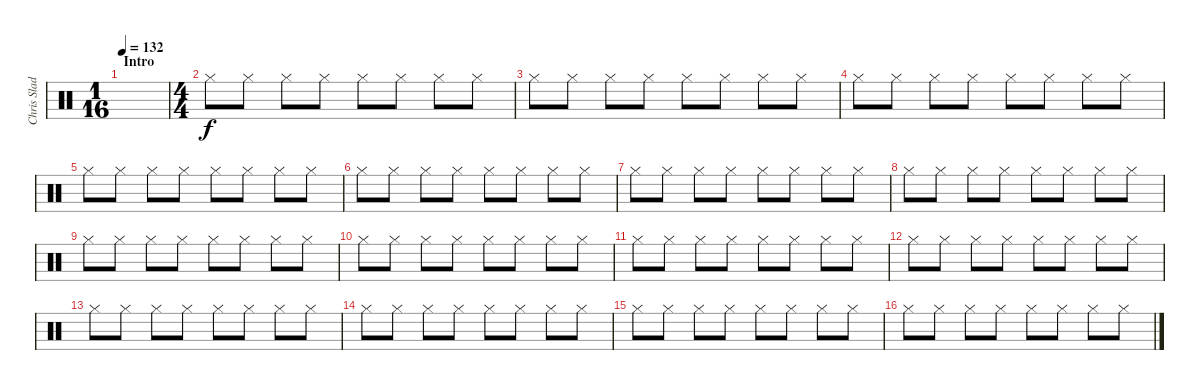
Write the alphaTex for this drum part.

\track ("Chris Slade" "Chris Slad") {instrument percussion}
\staff {score}
\articulation defaults
\ts (1 16)
\section ("" "Intro")
\tempo 132
\clef neutral
\ks c
|
\ts (4 4)
"Hi-Hat (closed)".8 "Hi-Hat (closed)".8 "Hi-Hat (closed)".8 "Hi-Hat (closed)".8 "Hi-Hat (closed)".8 "Hi-Hat (closed)".8 "Hi-Hat (closed)".8 "Hi-Hat (closed)".8 |
"Hi-Hat (closed)".8 "Hi-Hat (closed)".8 "Hi-Hat (closed)".8 "Hi-Hat (closed)".8 "Hi-Hat (closed)".8 "Hi-Hat (closed)".8 "Hi-Hat (closed)".8 "Hi-Hat (closed)".8 |
"Hi-Hat (closed)".8 "Hi-Hat (closed)".8 "Hi-Hat (closed)".8 "Hi-Hat (closed)".8 "Hi-Hat (closed)".8 "Hi-Hat (closed)".8 "Hi-Hat (closed)".8 "Hi-Hat (closed)".8 |
"Hi-Hat (closed)".8 "Hi-Hat (closed)".8 "Hi-Hat (closed)".8 "Hi-Hat (closed)".8 "Hi-Hat (closed)".8 "Hi-Hat (closed)".8 "Hi-Hat (closed)".8 "Hi-Hat (closed)".8 |
"Hi-Hat (closed)".8 "Hi-Hat (closed)".8 "Hi-Hat (closed)".8 "Hi-Hat (closed)".8 "Hi-Hat (closed)".8 "Hi-Hat (closed)".8 "Hi-Hat (closed)".8 "Hi-Hat (closed)".8 |
"Hi-Hat (closed)".8 "Hi-Hat (closed)".8 "Hi-Hat (closed)".8 "Hi-Hat (closed)".8 "Hi-Hat (closed)".8 "Hi-Hat (closed)".8 "Hi-Hat (closed)".8 "Hi-Hat (closed)".8 |
"Hi-Hat (closed)".8 "Hi-Hat (closed)".8 "Hi-Hat (closed)".8 "Hi-Hat (closed)".8 "Hi-Hat (closed)".8 "Hi-Hat (closed)".8 "Hi-Hat (closed)".8 "Hi-Hat (closed)".8 |
"Hi-Hat (closed)".8 "Hi-Hat (closed)".8 "Hi-Hat (closed)".8 "Hi-Hat (closed)".8 "Hi-Hat (closed)".8 "Hi-Hat (closed)".8 "Hi-Hat (closed)".8 "Hi-Hat (closed)".8 |
"Hi-Hat (closed)".8 "Hi-Hat (closed)".8 "Hi-Hat (closed)".8 "Hi-Hat (closed)".8 "Hi-Hat (closed)".8 "Hi-Hat (closed)".8 "Hi-Hat (closed)".8 "Hi-Hat (closed)".8 |
"Hi-Hat (closed)".8 "Hi-Hat (closed)".8 "Hi-Hat (closed)".8 "Hi-Hat (closed)".8 "Hi-Hat (closed)".8 "Hi-Hat (closed)".8 "Hi-Hat (closed)".8 "Hi-Hat (closed)".8 |
"Hi-Hat (closed)".8 "Hi-Hat (closed)".8 "Hi-Hat (closed)".8 "Hi-Hat (closed)".8 "Hi-Hat (closed)".8 "Hi-Hat (closed)".8 "Hi-Hat (closed)".8 "Hi-Hat (closed)".8 |
"Hi-Hat (closed)".8 "Hi-Hat (closed)".8 "Hi-Hat (closed)".8 "Hi-Hat (closed)".8 "Hi-Hat (closed)".8 "Hi-Hat (closed)".8 "Hi-Hat (closed)".8 "Hi-Hat (closed)".8 |
"Hi-Hat (closed)".8 "Hi-Hat (closed)".8 "Hi-Hat (closed)".8 "Hi-Hat (closed)".8 "Hi-Hat (closed)".8 "Hi-Hat (closed)".8 "Hi-Hat (closed)".8 "Hi-Hat (closed)".8 |
"Hi-Hat (closed)".8 "Hi-Hat (closed)".8 "Hi-Hat (closed)".8 "Hi-Hat (closed)".8 "Hi-Hat (closed)".8 "Hi-Hat (closed)".8 "Hi-Hat (closed)".8 "Hi-Hat (closed)".8 |
"Hi-Hat (closed)".8 "Hi-Hat (closed)".8 "Hi-Hat (closed)".8 "Hi-Hat (closed)".8 "Hi-Hat (closed)".8 "Hi-Hat (closed)".8 "Hi-Hat (closed)".8 "Hi-Hat (closed)".8
